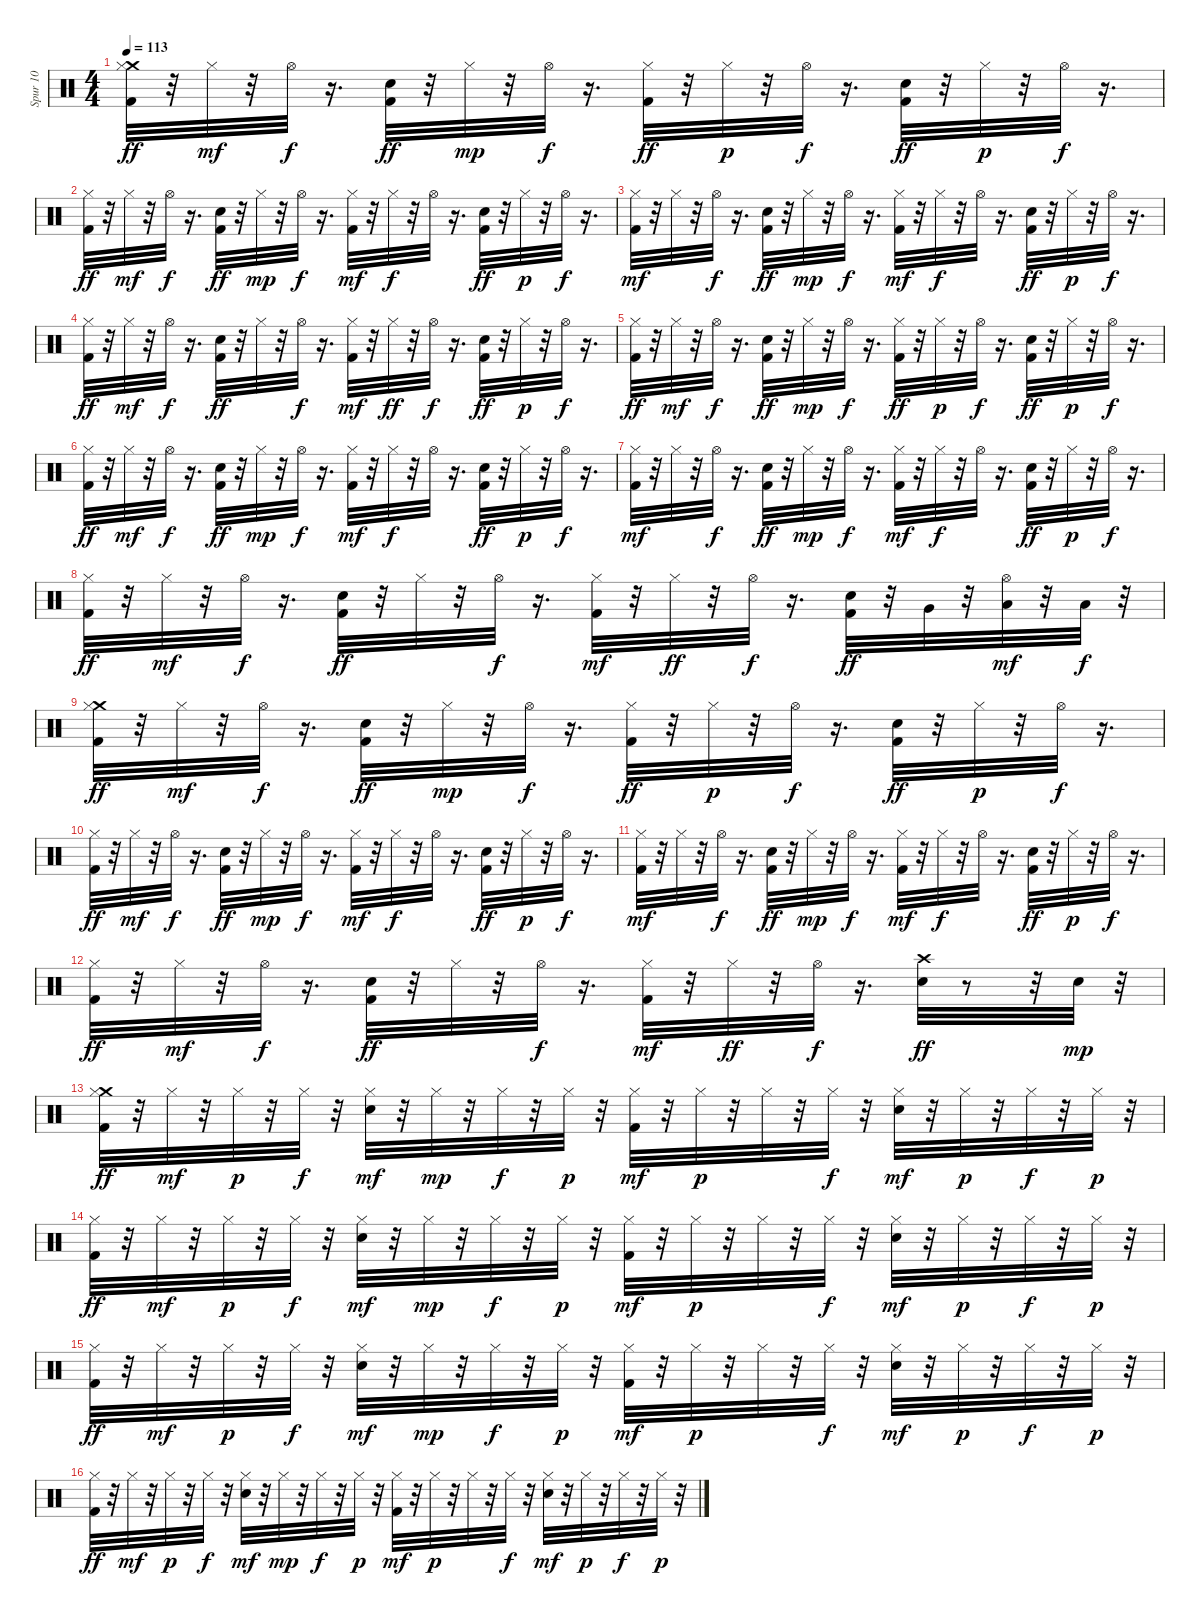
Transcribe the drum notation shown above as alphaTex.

\track ("Spur 10" "Spur 10") {instrument percussion}
\staff {score}
\articulation defaults
\ts (4 4)
\tempo 113
\clef neutral
\ks c
("Crash medium (hit)" "Kick (hit) 2" "Hi-Hat (closed)").32{dy ff} r.32 "Hi-Hat (closed)".32{dy mf} r.32 "Hi-Hat (open)".32{dy f} r.16{d} ("Kick (hit) 2" "Snare (hit) 2").32{dy ff} r.32 "Hi-Hat (closed)".32{dy mp} r.32 "Hi-Hat (open)".32{dy f} r.16{d} ("Kick (hit) 2" "Hi-Hat (closed)").32{dy ff} r.32 "Hi-Hat (closed)".32{dy p} r.32 "Hi-Hat (open)".32{dy f} r.16{d} ("Kick (hit) 2" "Snare (hit) 2").32{dy ff} r.32 "Hi-Hat (closed)".32{dy p} r.32 "Hi-Hat (open)".32{dy f} r.16{d} |
("Kick (hit) 2" "Hi-Hat (closed)").32{dy ff} r.32 "Hi-Hat (closed)".32{dy mf} r.32 "Hi-Hat (open)".32{dy f} r.16{d} ("Kick (hit) 2" "Snare (hit) 2").32{dy ff} r.32 "Hi-Hat (closed)".32{dy mp} r.32 "Hi-Hat (open)".32{dy f} r.16{d} ("Kick (hit) 2" "Hi-Hat (closed)").32{dy mf} r.32 "Hi-Hat (closed)".32{dy f} r.32 "Hi-Hat (open)".32 r.16{d} ("Kick (hit) 2" "Snare (hit) 2").32{dy ff} r.32 "Hi-Hat (closed)".32{dy p} r.32 "Hi-Hat (open)".32{dy f} r.16{d} |
("Kick (hit) 2" "Hi-Hat (closed)").32{dy mf} r.32 "Hi-Hat (closed)".32 r.32 "Hi-Hat (open)".32{dy f} r.16{d} ("Kick (hit) 2" "Snare (hit) 2").32{dy ff} r.32 "Hi-Hat (closed)".32{dy mp} r.32 "Hi-Hat (open)".32{dy f} r.16{d} ("Kick (hit) 2" "Hi-Hat (closed)").32{dy mf} r.32 "Hi-Hat (closed)".32{dy f} r.32 "Hi-Hat (open)".32 r.16{d} ("Kick (hit) 2" "Snare (hit) 2").32{dy ff} r.32 "Hi-Hat (closed)".32{dy p} r.32 "Hi-Hat (open)".32{dy f} r.16{d} |
("Kick (hit) 2" "Hi-Hat (closed)").32{dy ff} r.32 "Hi-Hat (closed)".32{dy mf} r.32 "Hi-Hat (open)".32{dy f} r.16{d} ("Kick (hit) 2" "Snare (hit) 2").32{dy ff} r.32 "Hi-Hat (closed)".32 r.32 "Hi-Hat (open)".32{dy f} r.16{d} ("Kick (hit) 2" "Hi-Hat (closed)").32{dy mf} r.32 "Hi-Hat (closed)".32{dy ff} r.32 "Hi-Hat (open)".32{dy f} r.16{d} ("Kick (hit) 2" "Snare (hit) 2").32{dy ff} r.32 "Hi-Hat (closed)".32{dy p} r.32 "Hi-Hat (open)".32{dy f} r.16{d} |
("Kick (hit) 2" "Hi-Hat (closed)").32{dy ff} r.32 "Hi-Hat (closed)".32{dy mf} r.32 "Hi-Hat (open)".32{dy f} r.16{d} ("Kick (hit) 2" "Snare (hit) 2").32{dy ff} r.32 "Hi-Hat (closed)".32{dy mp} r.32 "Hi-Hat (open)".32{dy f} r.16{d} ("Kick (hit) 2" "Hi-Hat (closed)").32{dy ff} r.32 "Hi-Hat (closed)".32{dy p} r.32 "Hi-Hat (open)".32{dy f} r.16{d} ("Kick (hit) 2" "Snare (hit) 2").32{dy ff} r.32 "Hi-Hat (closed)".32{dy p} r.32 "Hi-Hat (open)".32{dy f} r.16{d} |
("Kick (hit) 2" "Hi-Hat (closed)").32{dy ff} r.32 "Hi-Hat (closed)".32{dy mf} r.32 "Hi-Hat (open)".32{dy f} r.16{d} ("Kick (hit) 2" "Snare (hit) 2").32{dy ff} r.32 "Hi-Hat (closed)".32{dy mp} r.32 "Hi-Hat (open)".32{dy f} r.16{d} ("Kick (hit) 2" "Hi-Hat (closed)").32{dy mf} r.32 "Hi-Hat (closed)".32{dy f} r.32 "Hi-Hat (open)".32 r.16{d} ("Kick (hit) 2" "Snare (hit) 2").32{dy ff} r.32 "Hi-Hat (closed)".32{dy p} r.32 "Hi-Hat (open)".32{dy f} r.16{d} |
("Kick (hit) 2" "Hi-Hat (closed)").32{dy mf} r.32 "Hi-Hat (closed)".32 r.32 "Hi-Hat (open)".32{dy f} r.16{d} ("Kick (hit) 2" "Snare (hit) 2").32{dy ff} r.32 "Hi-Hat (closed)".32{dy mp} r.32 "Hi-Hat (open)".32{dy f} r.16{d} ("Kick (hit) 2" "Hi-Hat (closed)").32{dy mf} r.32 "Hi-Hat (closed)".32{dy f} r.32 "Hi-Hat (open)".32 r.16{d} ("Kick (hit) 2" "Snare (hit) 2").32{dy ff} r.32 "Hi-Hat (closed)".32{dy p} r.32 "Hi-Hat (open)".32{dy f} r.16{d} |
("Kick (hit) 2" "Hi-Hat (closed)").32{dy ff} r.32 "Hi-Hat (closed)".32{dy mf} r.32 "Hi-Hat (open)".32{dy f} r.16{d} ("Kick (hit) 2" "Snare (hit) 2").32{dy ff} r.32 "Hi-Hat (closed)".32 r.32 "Hi-Hat (open)".32{dy f} r.16{d} ("Kick (hit) 2" "Hi-Hat (closed)").32{dy mf} r.32 "Hi-Hat (closed)".32{dy ff} r.32 "Hi-Hat (open)".32{dy f} r.16{d} ("Kick (hit) 2" "Snare (hit) 2").32{dy ff} r.32 "Very Low Tom (hit)".32 r.32 ("Low Floor Tom (hit)" "Hi-Hat (open)").32{dy mf} r.32 "Low Floor Tom (hit)".32{dy f} r.32 |
("Crash medium (hit)" "Kick (hit) 2" "Hi-Hat (closed)").32{dy ff} r.32 "Hi-Hat (closed)".32{dy mf} r.32 "Hi-Hat (open)".32{dy f} r.16{d} ("Kick (hit) 2" "Snare (hit) 2").32{dy ff} r.32 "Hi-Hat (closed)".32{dy mp} r.32 "Hi-Hat (open)".32{dy f} r.16{d} ("Kick (hit) 2" "Hi-Hat (closed)").32{dy ff} r.32 "Hi-Hat (closed)".32{dy p} r.32 "Hi-Hat (open)".32{dy f} r.16{d} ("Kick (hit) 2" "Snare (hit) 2").32{dy ff} r.32 "Hi-Hat (closed)".32{dy p} r.32 "Hi-Hat (open)".32{dy f} r.16{d} |
("Kick (hit) 2" "Hi-Hat (closed)").32{dy ff} r.32 "Hi-Hat (closed)".32{dy mf} r.32 "Hi-Hat (open)".32{dy f} r.16{d} ("Kick (hit) 2" "Snare (hit) 2").32{dy ff} r.32 "Hi-Hat (closed)".32{dy mp} r.32 "Hi-Hat (open)".32{dy f} r.16{d} ("Kick (hit) 2" "Hi-Hat (closed)").32{dy mf} r.32 "Hi-Hat (closed)".32{dy f} r.32 "Hi-Hat (open)".32 r.16{d} ("Kick (hit) 2" "Snare (hit) 2").32{dy ff} r.32 "Hi-Hat (closed)".32{dy p} r.32 "Hi-Hat (open)".32{dy f} r.16{d} |
("Kick (hit) 2" "Hi-Hat (closed)").32{dy mf} r.32 "Hi-Hat (closed)".32 r.32 "Hi-Hat (open)".32{dy f} r.16{d} ("Kick (hit) 2" "Snare (hit) 2").32{dy ff} r.32 "Hi-Hat (closed)".32{dy mp} r.32 "Hi-Hat (open)".32{dy f} r.16{d} ("Kick (hit) 2" "Hi-Hat (closed)").32{dy mf} r.32 "Hi-Hat (closed)".32{dy f} r.32 "Hi-Hat (open)".32 r.16{d} ("Kick (hit) 2" "Snare (hit) 2").32{dy ff} r.32 "Hi-Hat (closed)".32{dy p} r.32 "Hi-Hat (open)".32{dy f} r.16{d} |
("Kick (hit) 2" "Hi-Hat (closed)").32{dy ff} r.32 "Hi-Hat (closed)".32{dy mf} r.32 "Hi-Hat (open)".32{dy f} r.16{d} ("Kick (hit) 2" "Snare (hit) 2").32{dy ff} r.32 "Hi-Hat (closed)".32 r.32 "Hi-Hat (open)".32{dy f} r.16{d} ("Kick (hit) 2" "Hi-Hat (closed)").32{dy mf} r.32 "Hi-Hat (closed)".32{dy ff} r.32 "Hi-Hat (open)".32{dy f} r.16{d} ("Snare (hit) 2" "Crash high (hit)").32{dy ff} r.8 r.32 "Snare (hit) 2".32{dy mp} r.32 |
("Crash medium (hit)" "Kick (hit) 2" "Hi-Hat (closed)").32{dy ff} r.32 "Hi-Hat (closed)".32{dy mf} r.32 "Hi-Hat (closed)".32{dy p} r.32 "Hi-Hat (closed)".32{dy f} r.32 ("Snare (hit) 2" "Hi-Hat (closed)").32{dy mf} r.32 "Hi-Hat (closed)".32{dy mp} r.32 "Hi-Hat (closed)".32{dy f} r.32 "Hi-Hat (closed)".32{dy p} r.32 ("Kick (hit) 2" "Hi-Hat (closed)").32{dy mf} r.32 "Hi-Hat (closed)".32{dy p} r.32 "Hi-Hat (closed)".32 r.32 "Hi-Hat (closed)".32{dy f} r.32 ("Snare (hit) 2" "Hi-Hat (closed)").32{dy mf} r.32 "Hi-Hat (closed)".32{dy p} r.32 "Hi-Hat (closed)".32{dy f} r.32 "Hi-Hat (closed)".32{dy p} r.32 |
("Kick (hit) 2" "Hi-Hat (closed)").32{dy ff} r.32 "Hi-Hat (closed)".32{dy mf} r.32 "Hi-Hat (closed)".32{dy p} r.32 "Hi-Hat (closed)".32{dy f} r.32 ("Snare (hit) 2" "Hi-Hat (closed)").32{dy mf} r.32 "Hi-Hat (closed)".32{dy mp} r.32 "Hi-Hat (closed)".32{dy f} r.32 "Hi-Hat (closed)".32{dy p} r.32 ("Kick (hit) 2" "Hi-Hat (closed)").32{dy mf} r.32 "Hi-Hat (closed)".32{dy p} r.32 "Hi-Hat (closed)".32 r.32 "Hi-Hat (closed)".32{dy f} r.32 ("Snare (hit) 2" "Hi-Hat (closed)").32{dy mf} r.32 "Hi-Hat (closed)".32{dy p} r.32 "Hi-Hat (closed)".32{dy f} r.32 "Hi-Hat (closed)".32{dy p} r.32 |
("Kick (hit) 2" "Hi-Hat (closed)").32{dy ff} r.32 "Hi-Hat (closed)".32{dy mf} r.32 "Hi-Hat (closed)".32{dy p} r.32 "Hi-Hat (closed)".32{dy f} r.32 ("Snare (hit) 2" "Hi-Hat (closed)").32{dy mf} r.32 "Hi-Hat (closed)".32{dy mp} r.32 "Hi-Hat (closed)".32{dy f} r.32 "Hi-Hat (closed)".32{dy p} r.32 ("Kick (hit) 2" "Hi-Hat (closed)").32{dy mf} r.32 "Hi-Hat (closed)".32{dy p} r.32 "Hi-Hat (closed)".32 r.32 "Hi-Hat (closed)".32{dy f} r.32 ("Snare (hit) 2" "Hi-Hat (closed)").32{dy mf} r.32 "Hi-Hat (closed)".32{dy p} r.32 "Hi-Hat (closed)".32{dy f} r.32 "Hi-Hat (closed)".32{dy p} r.32 |
("Kick (hit) 2" "Hi-Hat (closed)").32{dy ff} r.32 "Hi-Hat (closed)".32{dy mf} r.32 "Hi-Hat (closed)".32{dy p} r.32 "Hi-Hat (closed)".32{dy f} r.32 ("Snare (hit) 2" "Hi-Hat (closed)").32{dy mf} r.32 "Hi-Hat (closed)".32{dy mp} r.32 "Hi-Hat (closed)".32{dy f} r.32 "Hi-Hat (closed)".32{dy p} r.32 ("Kick (hit) 2" "Hi-Hat (closed)").32{dy mf} r.32 "Hi-Hat (closed)".32{dy p} r.32 "Hi-Hat (closed)".32 r.32 "Hi-Hat (closed)".32{dy f} r.32 ("Snare (hit) 2" "Hi-Hat (closed)").32{dy mf} r.32 "Hi-Hat (closed)".32{dy p} r.32 "Hi-Hat (closed)".32{dy f} r.32 "Hi-Hat (closed)".32{dy p} r.32
